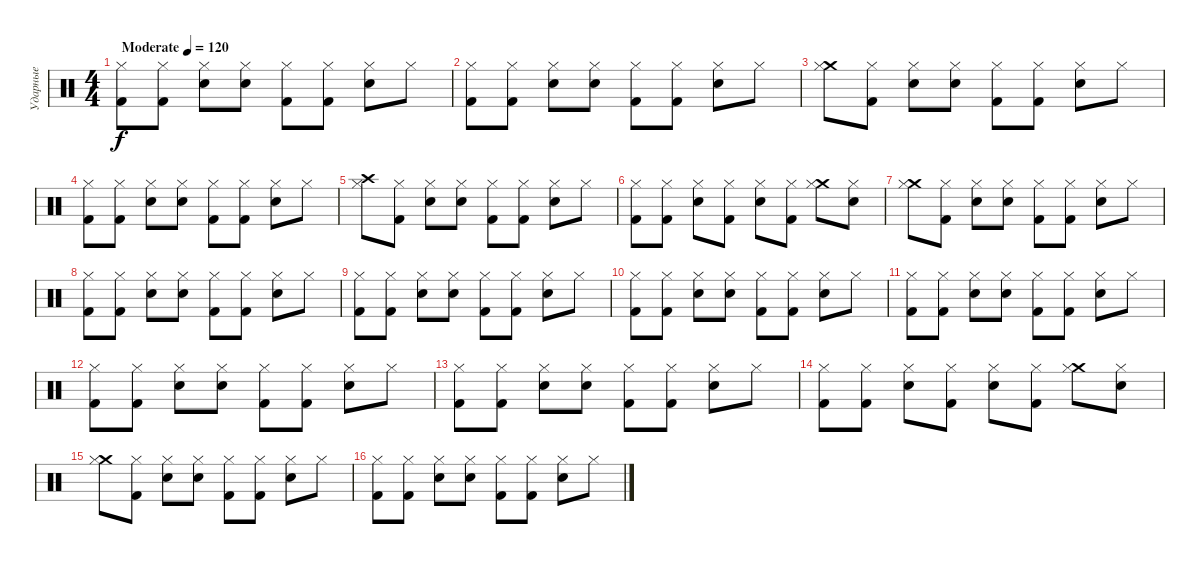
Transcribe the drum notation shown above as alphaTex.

\track ("Ударные" "Ударные") {instrument percussion}
\staff {score}
\articulation defaults
\ts (4 4)
\tempo (120 "Moderate")
\clef neutral
\ks c
("Kick (hit) 2" "Hi-Hat (closed)").8{dy f} ("Kick (hit) 2" "Hi-Hat (closed)").8 ("Snare (hit) 2" "Hi-Hat (closed)").8 ("Snare (hit) 2" "Hi-Hat (closed)").8 ("Kick (hit) 2" "Hi-Hat (closed)").8 ("Kick (hit) 2" "Hi-Hat (closed)").8 ("Snare (hit) 2" "Hi-Hat (closed)").8 "Hi-Hat (closed)".8 |
("Kick (hit) 2" "Hi-Hat (closed)").8 ("Kick (hit) 2" "Hi-Hat (closed)").8 ("Snare (hit) 2" "Hi-Hat (closed)").8 ("Snare (hit) 2" "Hi-Hat (closed)").8 ("Kick (hit) 2" "Hi-Hat (closed)").8 ("Kick (hit) 2" "Hi-Hat (closed)").8 ("Snare (hit) 2" "Hi-Hat (closed)").8 "Hi-Hat (closed)".8 |
("Crash medium (hit)" "Hi-Hat (closed)").8 ("Kick (hit) 2" "Hi-Hat (closed)").8 ("Snare (hit) 2" "Hi-Hat (closed)").8 ("Snare (hit) 2" "Hi-Hat (closed)").8 ("Kick (hit) 2" "Hi-Hat (closed)").8 ("Kick (hit) 2" "Hi-Hat (closed)").8 ("Snare (hit) 2" "Hi-Hat (closed)").8 "Hi-Hat (closed)".8 |
("Kick (hit) 2" "Hi-Hat (closed)").8 ("Kick (hit) 2" "Hi-Hat (closed)").8 ("Snare (hit) 2" "Hi-Hat (closed)").8 ("Snare (hit) 2" "Hi-Hat (closed)").8 ("Kick (hit) 2" "Hi-Hat (closed)").8 ("Kick (hit) 2" "Hi-Hat (closed)").8 ("Snare (hit) 2" "Hi-Hat (closed)").8 "Hi-Hat (closed)".8 |
("Crash high (hit)" "Hi-Hat (closed)").8 ("Kick (hit) 2" "Hi-Hat (closed)").8 ("Snare (hit) 2" "Hi-Hat (closed)").8 ("Snare (hit) 2" "Hi-Hat (closed)").8 ("Kick (hit) 2" "Hi-Hat (closed)").8 ("Kick (hit) 2" "Hi-Hat (closed)").8 ("Snare (hit) 2" "Hi-Hat (closed)").8 "Hi-Hat (closed)".8 |
("Kick (hit) 2" "Hi-Hat (closed)").8 ("Kick (hit) 2" "Hi-Hat (closed)").8 ("Snare (hit) 2" "Hi-Hat (closed)").8 ("Kick (hit) 2" "Hi-Hat (closed)").8 ("Snare (hit) 2" "Hi-Hat (closed)").8 ("Kick (hit) 2" "Hi-Hat (closed)").8 ("Crash medium (hit)" "Hi-Hat (closed)").8 ("Snare (hit) 2" "Hi-Hat (closed)").8 |
("Crash medium (hit)" "Hi-Hat (closed)").8 ("Kick (hit) 2" "Hi-Hat (closed)").8 ("Snare (hit) 2" "Hi-Hat (closed)").8 ("Snare (hit) 2" "Hi-Hat (closed)").8 ("Kick (hit) 2" "Hi-Hat (closed)").8 ("Kick (hit) 2" "Hi-Hat (closed)").8 ("Snare (hit) 2" "Hi-Hat (closed)").8 "Hi-Hat (closed)".8 |
("Kick (hit) 2" "Hi-Hat (closed)").8 ("Kick (hit) 2" "Hi-Hat (closed)").8 ("Snare (hit) 2" "Hi-Hat (closed)").8 ("Snare (hit) 2" "Hi-Hat (closed)").8 ("Kick (hit) 2" "Hi-Hat (closed)").8 ("Kick (hit) 2" "Hi-Hat (closed)").8 ("Snare (hit) 2" "Hi-Hat (closed)").8 "Hi-Hat (closed)".8 |
("Kick (hit) 2" "Hi-Hat (closed)").8 ("Kick (hit) 2" "Hi-Hat (closed)").8 ("Snare (hit) 2" "Hi-Hat (closed)").8 ("Snare (hit) 2" "Hi-Hat (closed)").8 ("Kick (hit) 2" "Hi-Hat (closed)").8 ("Kick (hit) 2" "Hi-Hat (closed)").8 ("Snare (hit) 2" "Hi-Hat (closed)").8 "Hi-Hat (closed)".8 |
("Kick (hit) 2" "Hi-Hat (closed)").8 ("Kick (hit) 2" "Hi-Hat (closed)").8 ("Snare (hit) 2" "Hi-Hat (closed)").8 ("Snare (hit) 2" "Hi-Hat (closed)").8 ("Kick (hit) 2" "Hi-Hat (closed)").8 ("Kick (hit) 2" "Hi-Hat (closed)").8 ("Snare (hit) 2" "Hi-Hat (closed)").8 "Hi-Hat (closed)".8 |
("Kick (hit) 2" "Hi-Hat (closed)").8 ("Kick (hit) 2" "Hi-Hat (closed)").8 ("Snare (hit) 2" "Hi-Hat (closed)").8 ("Snare (hit) 2" "Hi-Hat (closed)").8 ("Kick (hit) 2" "Hi-Hat (closed)").8 ("Kick (hit) 2" "Hi-Hat (closed)").8 ("Snare (hit) 2" "Hi-Hat (closed)").8 "Hi-Hat (closed)".8 |
("Kick (hit) 2" "Hi-Hat (closed)").8 ("Kick (hit) 2" "Hi-Hat (closed)").8 ("Snare (hit) 2" "Hi-Hat (closed)").8 ("Snare (hit) 2" "Hi-Hat (closed)").8 ("Kick (hit) 2" "Hi-Hat (closed)").8 ("Kick (hit) 2" "Hi-Hat (closed)").8 ("Snare (hit) 2" "Hi-Hat (closed)").8 "Hi-Hat (closed)".8 |
("Kick (hit) 2" "Hi-Hat (closed)").8 ("Kick (hit) 2" "Hi-Hat (closed)").8 ("Snare (hit) 2" "Hi-Hat (closed)").8 ("Snare (hit) 2" "Hi-Hat (closed)").8 ("Kick (hit) 2" "Hi-Hat (closed)").8 ("Kick (hit) 2" "Hi-Hat (closed)").8 ("Snare (hit) 2" "Hi-Hat (closed)").8 "Hi-Hat (closed)".8 |
("Kick (hit) 2" "Hi-Hat (closed)").8 ("Kick (hit) 2" "Hi-Hat (closed)").8 ("Snare (hit) 2" "Hi-Hat (closed)").8 ("Kick (hit) 2" "Hi-Hat (closed)").8 ("Snare (hit) 2" "Hi-Hat (closed)").8 ("Kick (hit) 2" "Hi-Hat (closed)").8 ("Crash medium (hit)" "Hi-Hat (closed)").8 ("Snare (hit) 2" "Hi-Hat (closed)").8 |
("Crash medium (hit)" "Hi-Hat (closed)").8 ("Kick (hit) 2" "Hi-Hat (closed)").8 ("Snare (hit) 2" "Hi-Hat (closed)").8 ("Snare (hit) 2" "Hi-Hat (closed)").8 ("Kick (hit) 2" "Hi-Hat (closed)").8 ("Kick (hit) 2" "Hi-Hat (closed)").8 ("Snare (hit) 2" "Hi-Hat (closed)").8 "Hi-Hat (closed)".8 |
("Kick (hit) 2" "Hi-Hat (closed)").8 ("Kick (hit) 2" "Hi-Hat (closed)").8 ("Snare (hit) 2" "Hi-Hat (closed)").8 ("Snare (hit) 2" "Hi-Hat (closed)").8 ("Kick (hit) 2" "Hi-Hat (closed)").8 ("Kick (hit) 2" "Hi-Hat (closed)").8 ("Snare (hit) 2" "Hi-Hat (closed)").8 "Hi-Hat (closed)".8
